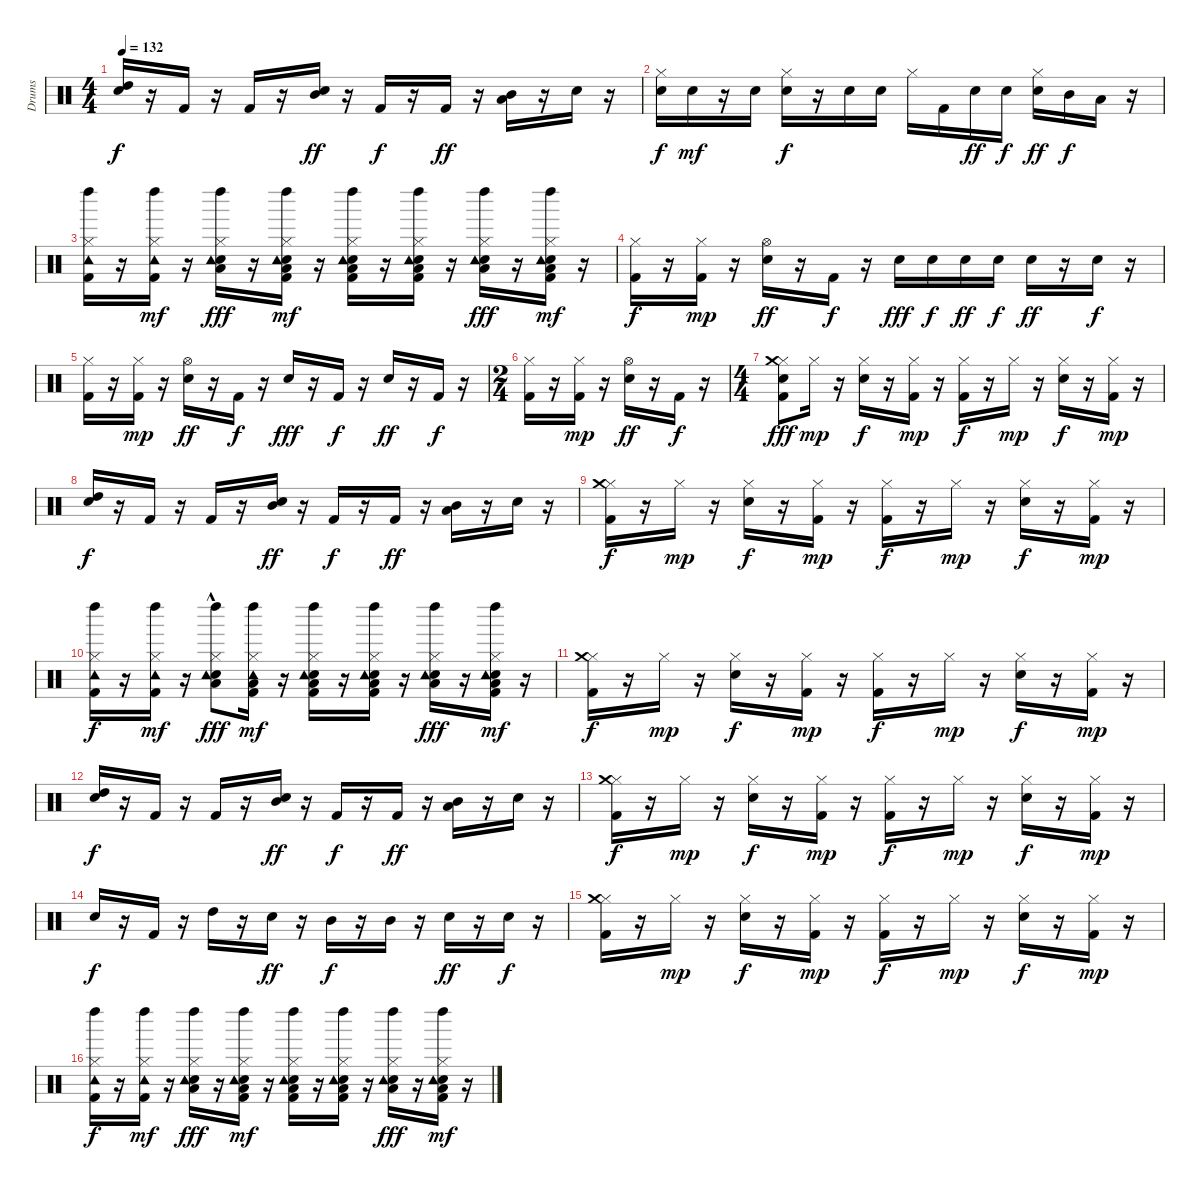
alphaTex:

\track ("Drums" "Drums") {instrument percussion}
\staff {score}
\articulation defaults
\ts (4 4)
\tempo 132
\clef neutral
\ks c
("Snare (hit) 2" "High Tom (hit)").16{dy f} r.16 "Kick (hit) 2".16 r.16 "Kick (hit) 2".16 r.16 ("Snare (hit) 2" "Mid Tom (hit)").16{dy ff} r.16 "Kick (hit) 2".16{dy f} r.16 "Kick (hit) 2".16{dy ff} r.16 ("Low Floor Tom (hit)" "Mid Tom (hit)").16 r.16 "Snare (hit) 2".16 r.16 |
("Snare (hit) 2" "Hi-Hat (closed)").16{dy f} "Snare (hit) 2".16{dy mf} r.16 "Snare (hit) 2".16 ("Snare (hit) 2" "Hi-Hat (closed)").16{dy f} r.16 "Snare (hit) 2".16 "Snare (hit) 2".16 "Hi-Hat (closed)".16 "Kick (hit) 2".16 "Snare (hit) 2".16{dy ff} "Snare (hit) 2".16{dy f} ("Snare (hit) 2" "Hi-Hat (closed)").16{dy ff} "Mid Tom (hit)".16{dy f} "Low Floor Tom (hit)".16 r.16 |
("Kick (hit) 2" "Hi-Hat (closed)" "Tambourine (hit)" "Left Maraca (hit)").16 r.16 ("Kick (hit) 2" "Hi-Hat (closed)" "Tambourine (hit)" "Left Maraca (hit)").16{dy mf} r.16 ("Snare (hit) 2" "Hi-Hat (closed)" "Low Floor Tom (hit)" "Tambourine (hit)" "Left Maraca (hit)").16{dy fff} r.16 ("Kick (hit) 2" "Snare (hit) 2" "Hi-Hat (closed)" "Low Floor Tom (hit)" "Tambourine (hit)" "Left Maraca (hit)").16{dy mf} r.16 ("Kick (hit) 2" "Snare (hit) 2" "Hi-Hat (closed)" "Low Floor Tom (hit)" "Tambourine (hit)" "Left Maraca (hit)").16 r.16 ("Kick (hit) 2" "Snare (hit) 2" "Hi-Hat (closed)" "Low Floor Tom (hit)" "Tambourine (hit)" "Left Maraca (hit)").16 r.16 ("Snare (hit) 2" "Hi-Hat (closed)" "Low Floor Tom (hit)" "Tambourine (hit)" "Left Maraca (hit)").16{dy fff} r.16 ("Kick (hit) 2" "Snare (hit) 2" "Hi-Hat (closed)" "Low Floor Tom (hit)" "Tambourine (hit)" "Left Maraca (hit)").16{dy mf} r.16 |
("Kick (hit) 2" "Hi-Hat (closed)").16{dy f} r.16 ("Kick (hit) 2" "Hi-Hat (closed)").16{dy mp} r.16 ("Snare (hit) 2" "Hi-Hat (open)").16{dy ff} r.16 "Kick (hit) 2".16{dy f} r.16 "Snare (hit) 2".16{dy fff} "Snare (hit) 2".16{dy f} "Snare (hit) 2".16{dy ff} "Snare (hit) 2".16{dy f} "Snare (hit) 2".16{dy ff} r.16 "Snare (hit) 2".16{dy f} r.16 |
("Kick (hit) 2" "Hi-Hat (closed)").16 r.16 ("Kick (hit) 2" "Hi-Hat (closed)").16{dy mp} r.16 ("Snare (hit) 2" "Hi-Hat (open)").16{dy ff} r.16 "Kick (hit) 2".16{dy f} r.16 "Snare (hit) 2".16{dy fff} r.16 "Kick (hit) 2".16{dy f} r.16 "Snare (hit) 2".16{dy ff} r.16 "Kick (hit) 2".16{dy f} r.16 |
\ts (2 4)
("Kick (hit) 2" "Hi-Hat (closed)").16 r.16 ("Kick (hit) 2" "Hi-Hat (closed)").16{dy mp} r.16 ("Snare (hit) 2" "Hi-Hat (open)").16{dy ff} r.16 "Kick (hit) 2".16{dy f} r.16 |
\ts (4 4)
("Snare (hit) 2" "Kick (hit) 2" "Hi-Hat (closed)" "Crash medium (hit)").8{dy fff} "Hi-Hat (closed)".16{dy mp} r.16 ("Snare (hit) 2" "Hi-Hat (closed)").16{dy f} r.16 ("Kick (hit) 2" "Hi-Hat (closed)").16{dy mp} r.16 ("Kick (hit) 2" "Hi-Hat (closed)").16{dy f} r.16 "Hi-Hat (closed)".16{dy mp} r.16 ("Snare (hit) 2" "Hi-Hat (closed)").16{dy f} r.16 ("Kick (hit) 2" "Hi-Hat (closed)").16{dy mp} r.16 |
("Snare (hit) 2" "High Tom (hit)").16{dy f} r.16 "Kick (hit) 2".16 r.16 "Kick (hit) 2".16 r.16 ("Snare (hit) 2" "Mid Tom (hit)").16{dy ff} r.16 "Kick (hit) 2".16{dy f} r.16 "Kick (hit) 2".16{dy ff} r.16 ("Low Floor Tom (hit)" "Mid Tom (hit)").16 r.16 "Snare (hit) 2".16 r.16 |
("Kick (hit) 2" "Hi-Hat (closed)" "Crash medium (hit)").16{dy f} r.16 "Hi-Hat (closed)".16{dy mp} r.16 ("Snare (hit) 2" "Hi-Hat (closed)").16{dy f} r.16 ("Kick (hit) 2" "Hi-Hat (closed)").16{dy mp} r.16 ("Kick (hit) 2" "Hi-Hat (closed)").16{dy f} r.16 "Hi-Hat (closed)".16{dy mp} r.16 ("Snare (hit) 2" "Hi-Hat (closed)").16{dy f} r.16 ("Kick (hit) 2" "Hi-Hat (closed)").16{dy mp} r.16 |
("Kick (hit) 2" "Hi-Hat (closed)" "Tambourine (hit)" "Left Maraca (hit)").16{dy f} r.16 ("Kick (hit) 2" "Hi-Hat (closed)" "Tambourine (hit)" "Left Maraca (hit)").16{dy mf} r.16 ("Snare (hit) 2"{hac} "Hi-Hat (closed)" "Low Floor Tom (hit)" "Tambourine (hit)" "Left Maraca (hit)").8{dy fff} ("Kick (hit) 2" "Hi-Hat (closed)" "Low Floor Tom (hit)" "Tambourine (hit)" "Left Maraca (hit)").16{dy mf} r.16 ("Kick (hit) 2" "Snare (hit) 2" "Hi-Hat (closed)" "Low Floor Tom (hit)" "Tambourine (hit)" "Left Maraca (hit)").16 r.16 ("Kick (hit) 2" "Snare (hit) 2" "Hi-Hat (closed)" "Low Floor Tom (hit)" "Tambourine (hit)" "Left Maraca (hit)").16 r.16 ("Snare (hit) 2" "Hi-Hat (closed)" "Low Floor Tom (hit)" "Tambourine (hit)" "Left Maraca (hit)").16{dy fff} r.16 ("Kick (hit) 2" "Snare (hit) 2" "Hi-Hat (closed)" "Low Floor Tom (hit)" "Tambourine (hit)" "Left Maraca (hit)").16{dy mf} r.16 |
("Kick (hit) 2" "Hi-Hat (closed)" "Crash medium (hit)").16{dy f} r.16 "Hi-Hat (closed)".16{dy mp} r.16 ("Snare (hit) 2" "Hi-Hat (closed)").16{dy f} r.16 ("Kick (hit) 2" "Hi-Hat (closed)").16{dy mp} r.16 ("Kick (hit) 2" "Hi-Hat (closed)").16{dy f} r.16 "Hi-Hat (closed)".16{dy mp} r.16 ("Snare (hit) 2" "Hi-Hat (closed)").16{dy f} r.16 ("Kick (hit) 2" "Hi-Hat (closed)").16{dy mp} r.16 |
("Snare (hit) 2" "High Tom (hit)").16{dy f} r.16 "Kick (hit) 2".16 r.16 "Kick (hit) 2".16 r.16 ("Snare (hit) 2" "Mid Tom (hit)").16{dy ff} r.16 "Kick (hit) 2".16{dy f} r.16 "Kick (hit) 2".16{dy ff} r.16 ("Low Floor Tom (hit)" "Mid Tom (hit)").16 r.16 "Snare (hit) 2".16 r.16 |
("Kick (hit) 2" "Hi-Hat (closed)" "Crash medium (hit)").16{dy f} r.16 "Hi-Hat (closed)".16{dy mp} r.16 ("Snare (hit) 2" "Hi-Hat (closed)").16{dy f} r.16 ("Kick (hit) 2" "Hi-Hat (closed)").16{dy mp} r.16 ("Kick (hit) 2" "Hi-Hat (closed)").16{dy f} r.16 "Hi-Hat (closed)".16{dy mp} r.16 ("Snare (hit) 2" "Hi-Hat (closed)").16{dy f} r.16 ("Kick (hit) 2" "Hi-Hat (closed)").16{dy mp} r.16 |
"Snare (hit) 2".16{dy f} r.16 "Kick (hit) 2".16 r.16 "High Tom (hit)".16 r.16 "Snare (hit) 2".16{dy ff} r.16 "Mid Tom (hit)".16{dy f} r.16 "Mid Tom (hit)".16 r.16 "Snare (hit) 2".16{dy ff} r.16 "Snare (hit) 2".16{dy f} r.16 |
("Kick (hit) 2" "Hi-Hat (closed)" "Crash medium (hit)").16 r.16 "Hi-Hat (closed)".16{dy mp} r.16 ("Snare (hit) 2" "Hi-Hat (closed)").16{dy f} r.16 ("Kick (hit) 2" "Hi-Hat (closed)").16{dy mp} r.16 ("Kick (hit) 2" "Hi-Hat (closed)").16{dy f} r.16 "Hi-Hat (closed)".16{dy mp} r.16 ("Snare (hit) 2" "Hi-Hat (closed)").16{dy f} r.16 ("Kick (hit) 2" "Hi-Hat (closed)").16{dy mp} r.16 |
("Kick (hit) 2" "Hi-Hat (closed)" "Tambourine (hit)" "Left Maraca (hit)").16{dy f} r.16 ("Kick (hit) 2" "Hi-Hat (closed)" "Tambourine (hit)" "Left Maraca (hit)").16{dy mf} r.16 ("Snare (hit) 2" "Hi-Hat (closed)" "Low Floor Tom (hit)" "Tambourine (hit)" "Left Maraca (hit)").16{dy fff} r.16 ("Kick (hit) 2" "Snare (hit) 2" "Hi-Hat (closed)" "Low Floor Tom (hit)" "Tambourine (hit)" "Left Maraca (hit)").16{dy mf} r.16 ("Kick (hit) 2" "Snare (hit) 2" "Hi-Hat (closed)" "Low Floor Tom (hit)" "Tambourine (hit)" "Left Maraca (hit)").16 r.16 ("Kick (hit) 2" "Snare (hit) 2" "Hi-Hat (closed)" "Low Floor Tom (hit)" "Tambourine (hit)" "Left Maraca (hit)").16 r.16 ("Snare (hit) 2" "Hi-Hat (closed)" "Low Floor Tom (hit)" "Tambourine (hit)" "Left Maraca (hit)").16{dy fff} r.16 ("Kick (hit) 2" "Snare (hit) 2" "Hi-Hat (closed)" "Low Floor Tom (hit)" "Tambourine (hit)" "Left Maraca (hit)").16{dy mf} r.16
